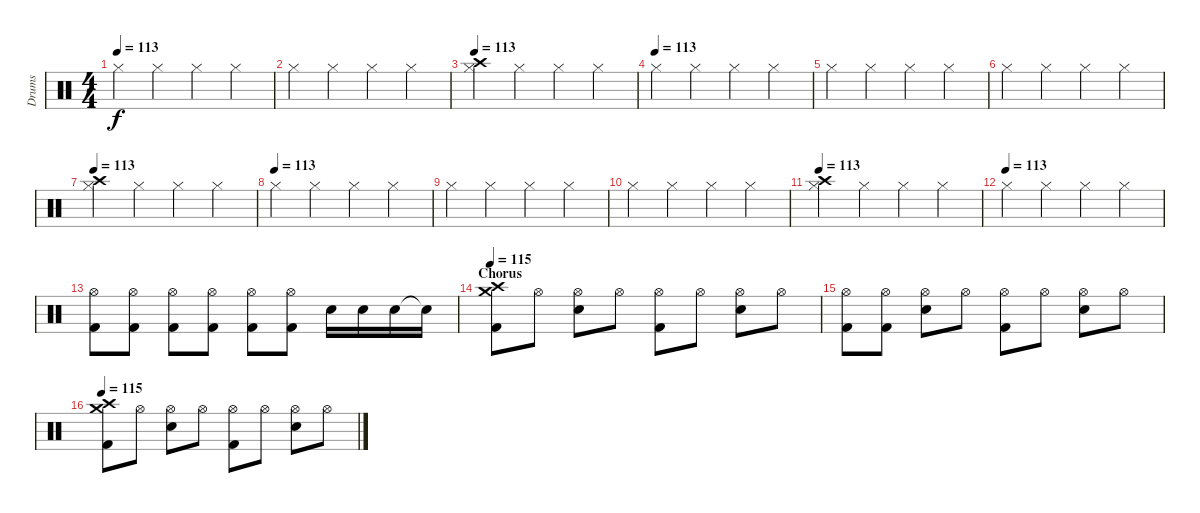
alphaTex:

\track ("Drums" "Drums") {instrument percussion}
\staff {score}
\articulation defaults
\ts (4 4)
\tempo 113
\clef neutral
\ks c "Hi-Hat (closed)".4{dy f} "Hi-Hat (closed)".4 "Hi-Hat (closed)".4 "Hi-Hat (closed)".4
|
"Hi-Hat (closed)".4 "Hi-Hat (closed)".4 "Hi-Hat (closed)".4 "Hi-Hat (closed)".4 |
\tempo 113
("Hi-Hat (closed)" "Crash high (hit)").4 "Hi-Hat (closed)".4 "Hi-Hat (closed)".4 "Hi-Hat (closed)".4 |
\tempo (113)
"Hi-Hat (closed)".4 "Hi-Hat (closed)".4 "Hi-Hat (closed)".4 "Hi-Hat (closed)".4 |
"Hi-Hat (closed)".4 "Hi-Hat (closed)".4 "Hi-Hat (closed)".4 "Hi-Hat (closed)".4 |
"Hi-Hat (closed)".4 "Hi-Hat (closed)".4 "Hi-Hat (closed)".4 "Hi-Hat (closed)".4 |
\tempo 113
("Hi-Hat (closed)" "Crash high (hit)").4 "Hi-Hat (closed)".4 "Hi-Hat (closed)".4 "Hi-Hat (closed)".4 |
\tempo (113)
"Hi-Hat (closed)".4 "Hi-Hat (closed)".4 "Hi-Hat (closed)".4 "Hi-Hat (closed)".4 |
"Hi-Hat (closed)".4 "Hi-Hat (closed)".4 "Hi-Hat (closed)".4 "Hi-Hat (closed)".4 |
"Hi-Hat (closed)".4 "Hi-Hat (closed)".4 "Hi-Hat (closed)".4 "Hi-Hat (closed)".4 |
\tempo 113
("Hi-Hat (closed)" "Crash high (hit)").4 "Hi-Hat (closed)".4 "Hi-Hat (closed)".4 "Hi-Hat (closed)".4 |
\tempo (113)
"Hi-Hat (closed)".4 "Hi-Hat (closed)".4 "Hi-Hat (closed)".4 "Hi-Hat (closed)".4 |
("Hi-Hat (open)" "Kick (hit) 2").8 ("Hi-Hat (open)" "Kick (hit) 2").8 ("Hi-Hat (open)" "Kick (hit) 2").8 ("Hi-Hat (open)" "Kick (hit) 2").8 ("Hi-Hat (open)" "Kick (hit) 2").8 ("Hi-Hat (open)" "Kick (hit) 2").8 "Electric Snare (hit)".16 "Electric Snare (hit)".16 "Electric Snare (hit)".16 "Electric Snare (hit)"{t}.16 |
\section ("" "Chorus")
\tempo 115
("Crash high (hit)" "Crash medium (hit)" "Kick (hit) 2").8 "Hi-Hat (open)".8 ("Hi-Hat (open)" "Electric Snare (hit)").8 "Hi-Hat (open)".8 ("Hi-Hat (open)" "Kick (hit) 2").8 "Hi-Hat (open)".8 ("Hi-Hat (open)" "Electric Snare (hit)").8 "Hi-Hat (open)".8 |
("Hi-Hat (open)" "Kick (hit) 2").8 ("Hi-Hat (open)" "Kick (hit) 2").8 ("Hi-Hat (open)" "Electric Snare (hit)").8 "Hi-Hat (open)".8 ("Hi-Hat (open)" "Kick (hit) 2").8 "Hi-Hat (open)".8 ("Hi-Hat (open)" "Electric Snare (hit)").8 "Hi-Hat (open)".8 |
\tempo 115
("Crash high (hit)" "Crash medium (hit)" "Kick (hit) 2").8 "Hi-Hat (open)".8 ("Hi-Hat (open)" "Electric Snare (hit)").8 "Hi-Hat (open)".8 ("Hi-Hat (open)" "Kick (hit) 2").8 "Hi-Hat (open)".8 ("Hi-Hat (open)" "Electric Snare (hit)").8 "Hi-Hat (open)".8
